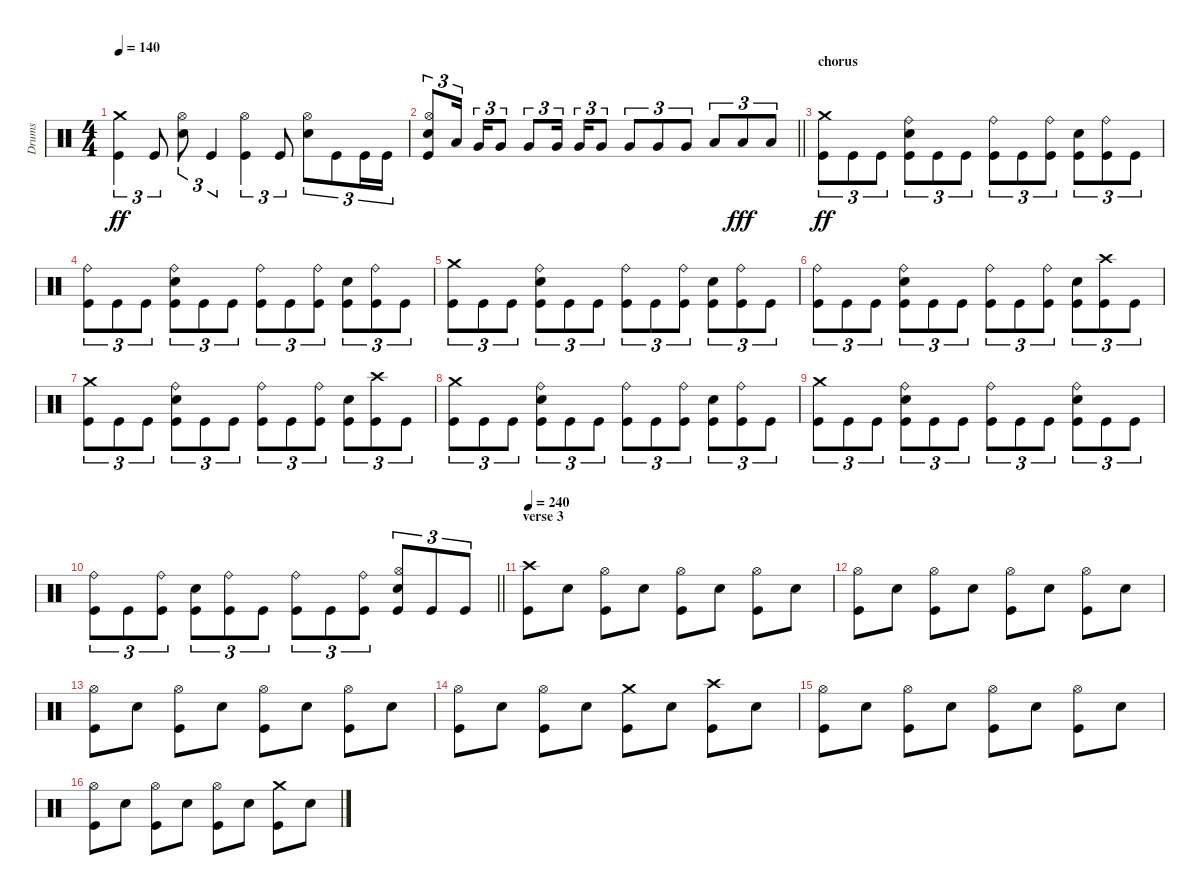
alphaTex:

\track ("Drums" "Drums") {instrument percussion}
\staff {score}
\articulation defaults
\ts (4 4)
\tempo 140
\clef neutral
\ks c
("Crash medium (hit)" "Kick (hit)").4{tu (3 2) dy ff} "Kick (hit)".8{tu (3 2)} ("Hi-Hat (open)" "Electric Snare (hit)").8{tu (3 2)} "Kick (hit)".4{tu (3 2)} ("Hi-Hat (open)" "Kick (hit)").4{tu (3 2)} "Kick (hit)".8{tu (3 2)} ("Hi-Hat (open)" "Electric Snare (hit)").8{tu (3 2)} "Kick (hit)".8{tu (3 2)} "Kick (hit)".16{tu (3 2)} "Kick (hit)".16{tu (3 2)} |
\barLineRight lightlight
("Hi-Hat (open)" "Electric Snare (hit)" "Kick (hit)").8{tu (3 2)} "Low Tom (hit)".16{tu (3 2) beam splitsecondary} "Very Low Tom (hit)".16{tu (3 2)} "Very Low Tom (hit)".8{tu (3 2)} "Very Low Tom (hit)".8{tu (3 2)} "Very Low Tom (hit)".16{tu (3 2) beam splitsecondary} "Very Low Tom (hit)".16{tu (3 2)} "Very Low Tom (hit)".8{tu (3 2)} "Very Low Tom (hit)".8{tu (3 2)} "Very Low Tom (hit)".8{tu (3 2)} "Very Low Tom (hit)".8{tu (3 2)} "Low Floor Tom (hit)".8{tu (3 2)} "Low Floor Tom (hit)".8{tu (3 2) dy fff} "Low Floor Tom (hit)".8{tu (3 2)} |
\section ("" "chorus")
("Crash medium (hit)" "Kick (hit)").8{tu (3 2) dy ff} "Kick (hit)".8{tu (3 2)} "Kick (hit)".8{tu (3 2)} ("Ride (bell)" "Electric Snare (hit)" "Kick (hit)").8{tu (3 2)} "Kick (hit)".8{tu (3 2)} "Kick (hit)".8{tu (3 2)} ("Ride (bell)" "Kick (hit)").8{tu (3 2)} "Kick (hit)".8{tu (3 2)} ("Ride (bell)" "Kick (hit)").8{tu (3 2)} ("Electric Snare (hit)" "Kick (hit)").8{tu (3 2)} ("Ride (bell)" "Kick (hit)").8{tu (3 2)} "Kick (hit)".8{tu (3 2)} |
("Ride (bell)" "Kick (hit)").8{tu (3 2)} "Kick (hit)".8{tu (3 2)} "Kick (hit)".8{tu (3 2)} ("Ride (bell)" "Electric Snare (hit)" "Kick (hit)").8{tu (3 2)} "Kick (hit)".8{tu (3 2)} "Kick (hit)".8{tu (3 2)} ("Ride (bell)" "Kick (hit)").8{tu (3 2)} "Kick (hit)".8{tu (3 2)} ("Ride (bell)" "Kick (hit)").8{tu (3 2)} ("Electric Snare (hit)" "Kick (hit)").8{tu (3 2)} ("Ride (bell)" "Kick (hit)").8{tu (3 2)} "Kick (hit)".8{tu (3 2)} |
("Crash medium (hit)" "Kick (hit)").8{tu (3 2)} "Kick (hit)".8{tu (3 2)} "Kick (hit)".8{tu (3 2)} ("Ride (bell)" "Electric Snare (hit)" "Kick (hit)").8{tu (3 2)} "Kick (hit)".8{tu (3 2)} "Kick (hit)".8{tu (3 2)} ("Ride (bell)" "Kick (hit)").8{tu (3 2)} "Kick (hit)".8{tu (3 2)} ("Ride (bell)" "Kick (hit)").8{tu (3 2)} ("Electric Snare (hit)" "Kick (hit)").8{tu (3 2)} ("Ride (bell)" "Kick (hit)").8{tu (3 2)} "Kick (hit)".8{tu (3 2)} |
("Ride (bell)" "Kick (hit)").8{tu (3 2)} "Kick (hit)".8{tu (3 2)} "Kick (hit)".8{tu (3 2)} ("Ride (bell)" "Electric Snare (hit)" "Kick (hit)").8{tu (3 2)} "Kick (hit)".8{tu (3 2)} "Kick (hit)".8{tu (3 2)} ("Ride (bell)" "Kick (hit)").8{tu (3 2)} "Kick (hit)".8{tu (3 2)} ("Ride (bell)" "Kick (hit)").8{tu (3 2)} ("Electric Snare (hit)" "Kick (hit)").8{tu (3 2)} ("Crash high (hit)" "Kick (hit)").8{tu (3 2)} "Kick (hit)".8{tu (3 2)} |
("Crash medium (hit)" "Kick (hit)").8{tu (3 2)} "Kick (hit)".8{tu (3 2)} "Kick (hit)".8{tu (3 2)} ("Ride (bell)" "Electric Snare (hit)" "Kick (hit)").8{tu (3 2)} "Kick (hit)".8{tu (3 2)} "Kick (hit)".8{tu (3 2)} ("Ride (bell)" "Kick (hit)").8{tu (3 2)} "Kick (hit)".8{tu (3 2)} ("Ride (bell)" "Kick (hit)").8{tu (3 2)} ("Electric Snare (hit)" "Kick (hit)").8{tu (3 2)} ("Crash high (hit)" "Kick (hit)").8{tu (3 2)} "Kick (hit)".8{tu (3 2)} |
("Crash medium (hit)" "Kick (hit)").8{tu (3 2)} "Kick (hit)".8{tu (3 2)} "Kick (hit)".8{tu (3 2)} ("Ride (bell)" "Electric Snare (hit)" "Kick (hit)").8{tu (3 2)} "Kick (hit)".8{tu (3 2)} "Kick (hit)".8{tu (3 2)} ("Ride (bell)" "Kick (hit)").8{tu (3 2)} "Kick (hit)".8{tu (3 2)} ("Ride (bell)" "Kick (hit)").8{tu (3 2)} ("Electric Snare (hit)" "Kick (hit)").8{tu (3 2)} ("Ride (bell)" "Kick (hit)").8{tu (3 2)} "Kick (hit)".8{tu (3 2)} |
("Crash medium (hit)" "Kick (hit)").8{tu (3 2)} "Kick (hit)".8{tu (3 2)} "Kick (hit)".8{tu (3 2)} ("Ride (bell)" "Electric Snare (hit)" "Kick (hit)").8{tu (3 2)} "Kick (hit)".8{tu (3 2)} "Kick (hit)".8{tu (3 2)} ("Ride (bell)" "Kick (hit)").8{tu (3 2)} "Kick (hit)".8{tu (3 2)} "Kick (hit)".8{tu (3 2)} ("Ride (bell)" "Electric Snare (hit)" "Kick (hit)").8{tu (3 2)} "Kick (hit)".8{tu (3 2)} "Kick (hit)".8{tu (3 2)} |
\barLineRight lightlight
("Ride (bell)" "Kick (hit)").8{tu (3 2)} "Kick (hit)".8{tu (3 2)} ("Ride (bell)" "Kick (hit)").8{tu (3 2)} ("Electric Snare (hit)" "Kick (hit)").8{tu (3 2)} ("Ride (bell)" "Kick (hit)").8{tu (3 2)} "Kick (hit)".8{tu (3 2)} ("Ride (bell)" "Kick (hit)").8{tu (3 2)} "Kick (hit)".8{tu (3 2)} ("Ride (bell)" "Kick (hit)").8{tu (3 2)} ("Hi-Hat (open)" "Electric Snare (hit)" "Kick (hit)").8{tu (3 2)} "Kick (hit)".8{tu (3 2)} "Kick (hit)".8{tu (3 2)} |
\section ("" "verse 3")
\tempo 240
("Crash high (hit)" "Kick (hit)").8 "Electric Snare (hit)".8 ("Hi-Hat (open)" "Kick (hit)").8 "Electric Snare (hit)".8 ("Hi-Hat (open)" "Kick (hit)").8 "Electric Snare (hit)".8 ("Hi-Hat (open)" "Kick (hit)").8 "Electric Snare (hit)".8 |
("Hi-Hat (open)" "Kick (hit)").8 "Electric Snare (hit)".8 ("Hi-Hat (open)" "Kick (hit)").8 "Electric Snare (hit)".8 ("Hi-Hat (open)" "Kick (hit)").8 "Electric Snare (hit)".8 ("Hi-Hat (open)" "Kick (hit)").8 "Electric Snare (hit)".8 |
("Hi-Hat (open)" "Kick (hit)").8 "Electric Snare (hit)".8 ("Hi-Hat (open)" "Kick (hit)").8 "Electric Snare (hit)".8 ("Hi-Hat (open)" "Kick (hit)").8 "Electric Snare (hit)".8 ("Hi-Hat (open)" "Kick (hit)").8 "Electric Snare (hit)".8 |
("Hi-Hat (open)" "Kick (hit)").8 "Electric Snare (hit)".8 ("Hi-Hat (open)" "Kick (hit)").8 "Electric Snare (hit)".8 ("Crash medium (hit)" "Kick (hit)").8 "Electric Snare (hit)".8 ("Crash high (hit)" "Kick (hit)").8 "Electric Snare (hit)".8 |
("Hi-Hat (open)" "Kick (hit)").8 "Electric Snare (hit)".8 ("Hi-Hat (open)" "Kick (hit)").8 "Electric Snare (hit)".8 ("Hi-Hat (open)" "Kick (hit)").8 "Electric Snare (hit)".8 ("Hi-Hat (open)" "Kick (hit)").8 "Electric Snare (hit)".8 |
("Hi-Hat (open)" "Kick (hit)").8 "Electric Snare (hit)".8 ("Hi-Hat (open)" "Kick (hit)").8 "Electric Snare (hit)".8 ("Hi-Hat (open)" "Kick (hit)").8 "Electric Snare (hit)".8 ("Crash medium (hit)" "Kick (hit)").8 "Electric Snare (hit)".8
